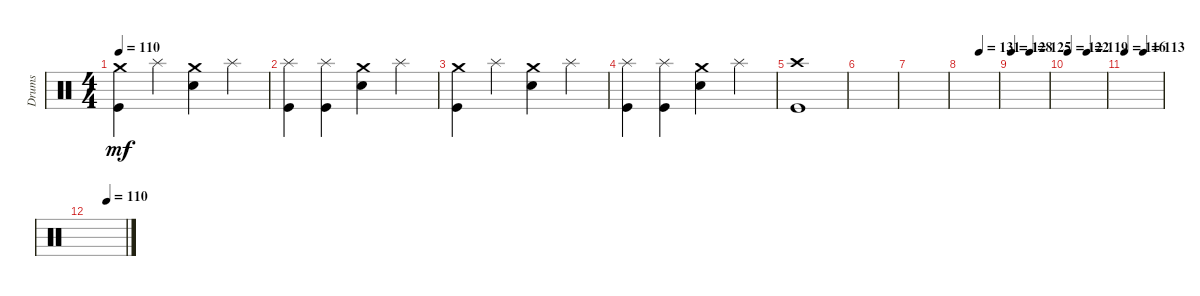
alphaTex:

\track ("Drums" "Drums") {instrument percussion}
\staff {score}
\articulation defaults
\ts (4 4)
\tempo 110
\clef neutral
\ks c
("Crash medium (hit)" "Kick (hit)").4{dy mf} "Splash (hit)".4 ("Crash medium (hit)" "Snare (hit) 2").4 "Splash (hit)".4 |
("Splash (hit)" "Kick (hit)").4 ("Splash (hit)" "Kick (hit)").4 ("Crash medium (hit)" "Snare (hit) 2").4 "Splash (hit)".4 |
("Crash medium (hit)" "Kick (hit)").4 "Splash (hit)".4 ("Crash medium (hit)" "Snare (hit) 2").4 "Splash (hit)".4 |
("Splash (hit)" "Kick (hit)").4 ("Splash (hit)" "Kick (hit)").4 ("Crash medium (hit)" "Snare (hit) 2").4 "Splash (hit)".4 |
("Crash high (hit)" "Kick (hit)").1 |
|
|
\tempo (131 0.5)
|
\tempo 128
\tempo (125 0.5)
|
\tempo 122
\tempo (119 0.5)
|
\tempo 116
\tempo (113 0.5)
|
\tempo (110 0.5)
